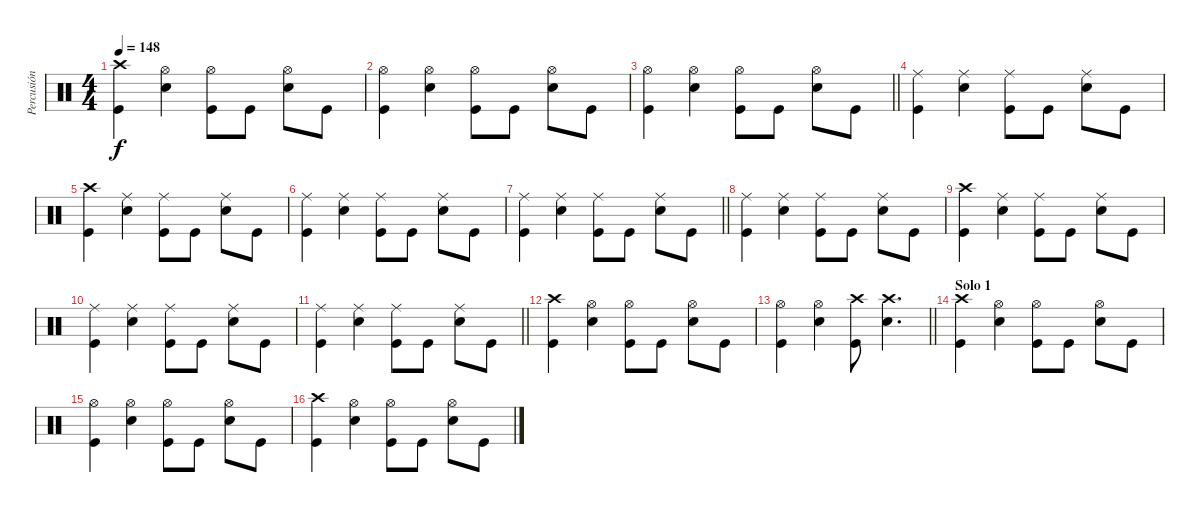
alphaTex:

\track ("Percusión" "Percusión") {instrument percussion}
\staff {score}
\articulation defaults
\ts (4 4)
\tempo 148
\clef neutral
\ks c
("Crash high (hit)" "Kick (hit)").4{dy f} ("Hi-Hat (open)" "Electric Snare (hit)").4 ("Hi-Hat (open)" "Kick (hit)").8 "Kick (hit)".8 ("Hi-Hat (open)" "Electric Snare (hit)").8 "Kick (hit)".8 |
("Hi-Hat (open)" "Kick (hit)").4 ("Hi-Hat (open)" "Electric Snare (hit)").4 ("Hi-Hat (open)" "Kick (hit)").8 "Kick (hit)".8 ("Hi-Hat (open)" "Electric Snare (hit)").8 "Kick (hit)".8 |
\barLineRight lightlight
("Hi-Hat (open)" "Kick (hit)").4 ("Hi-Hat (open)" "Electric Snare (hit)").4 ("Hi-Hat (open)" "Kick (hit)").8 "Kick (hit)".8 ("Hi-Hat (open)" "Electric Snare (hit)").8 "Kick (hit)".8 |
\section ("" "")
("Ride (middle)" "Kick (hit)").4 ("Ride (middle)" "Electric Snare (hit)").4 ("Ride (middle)" "Kick (hit)").8 "Kick (hit)".8 ("Ride (middle)" "Electric Snare (hit)").8 "Kick (hit)".8 |
("Crash high (hit)" "Kick (hit)").4 ("Ride (middle)" "Electric Snare (hit)").4 ("Ride (middle)" "Kick (hit)").8 "Kick (hit)".8 ("Ride (middle)" "Electric Snare (hit)").8 "Kick (hit)".8 |
("Ride (middle)" "Kick (hit)").4 ("Ride (middle)" "Electric Snare (hit)").4 ("Ride (middle)" "Kick (hit)").8 "Kick (hit)".8 ("Ride (middle)" "Electric Snare (hit)").8 "Kick (hit)".8 |
\barLineRight lightlight
("Ride (middle)" "Kick (hit)").4 ("Ride (middle)" "Electric Snare (hit)").4 ("Ride (middle)" "Kick (hit)").8 "Kick (hit)".8 ("Ride (middle)" "Electric Snare (hit)").8 "Kick (hit)".8 |
("Ride (middle)" "Kick (hit)").4 ("Ride (middle)" "Electric Snare (hit)").4 ("Ride (middle)" "Kick (hit)").8 "Kick (hit)".8 ("Ride (middle)" "Electric Snare (hit)").8 "Kick (hit)".8 |
("Crash high (hit)" "Kick (hit)").4 ("Ride (middle)" "Electric Snare (hit)").4 ("Ride (middle)" "Kick (hit)").8 "Kick (hit)".8 ("Ride (middle)" "Electric Snare (hit)").8 "Kick (hit)".8 |
("Ride (middle)" "Kick (hit)").4 ("Ride (middle)" "Electric Snare (hit)").4 ("Ride (middle)" "Kick (hit)").8 "Kick (hit)".8 ("Ride (middle)" "Electric Snare (hit)").8 "Kick (hit)".8 |
\barLineRight lightlight
("Ride (middle)" "Kick (hit)").4 ("Ride (middle)" "Electric Snare (hit)").4 ("Ride (middle)" "Kick (hit)").8 "Kick (hit)".8 ("Ride (middle)" "Electric Snare (hit)").8 "Kick (hit)".8 |
("Crash high (hit)" "Kick (hit)").4 ("Hi-Hat (open)" "Electric Snare (hit)").4 ("Hi-Hat (open)" "Kick (hit)").8 "Kick (hit)".8 ("Hi-Hat (open)" "Electric Snare (hit)").8 "Kick (hit)".8 |
\barLineRight lightlight
("Hi-Hat (open)" "Kick (hit)").4 ("Hi-Hat (open)" "Electric Snare (hit)").4 ("Crash high (hit)" "Kick (hit)").8 ("Crash high (hit)" "Electric Snare (hit)").4{d} |
\section ("" "Solo 1")
("Crash high (hit)" "Kick (hit)").4 ("Hi-Hat (open)" "Electric Snare (hit)").4 ("Hi-Hat (open)" "Kick (hit)").8 "Kick (hit)".8 ("Hi-Hat (open)" "Electric Snare (hit)").8 "Kick (hit)".8 |
("Hi-Hat (open)" "Kick (hit)").4 ("Hi-Hat (open)" "Electric Snare (hit)").4 ("Hi-Hat (open)" "Kick (hit)").8 "Kick (hit)".8 ("Hi-Hat (open)" "Electric Snare (hit)").8 "Kick (hit)".8 |
("Crash high (hit)" "Kick (hit)").4 ("Hi-Hat (open)" "Electric Snare (hit)").4 ("Hi-Hat (open)" "Kick (hit)").8 "Kick (hit)".8 ("Hi-Hat (open)" "Electric Snare (hit)").8 "Kick (hit)".8
